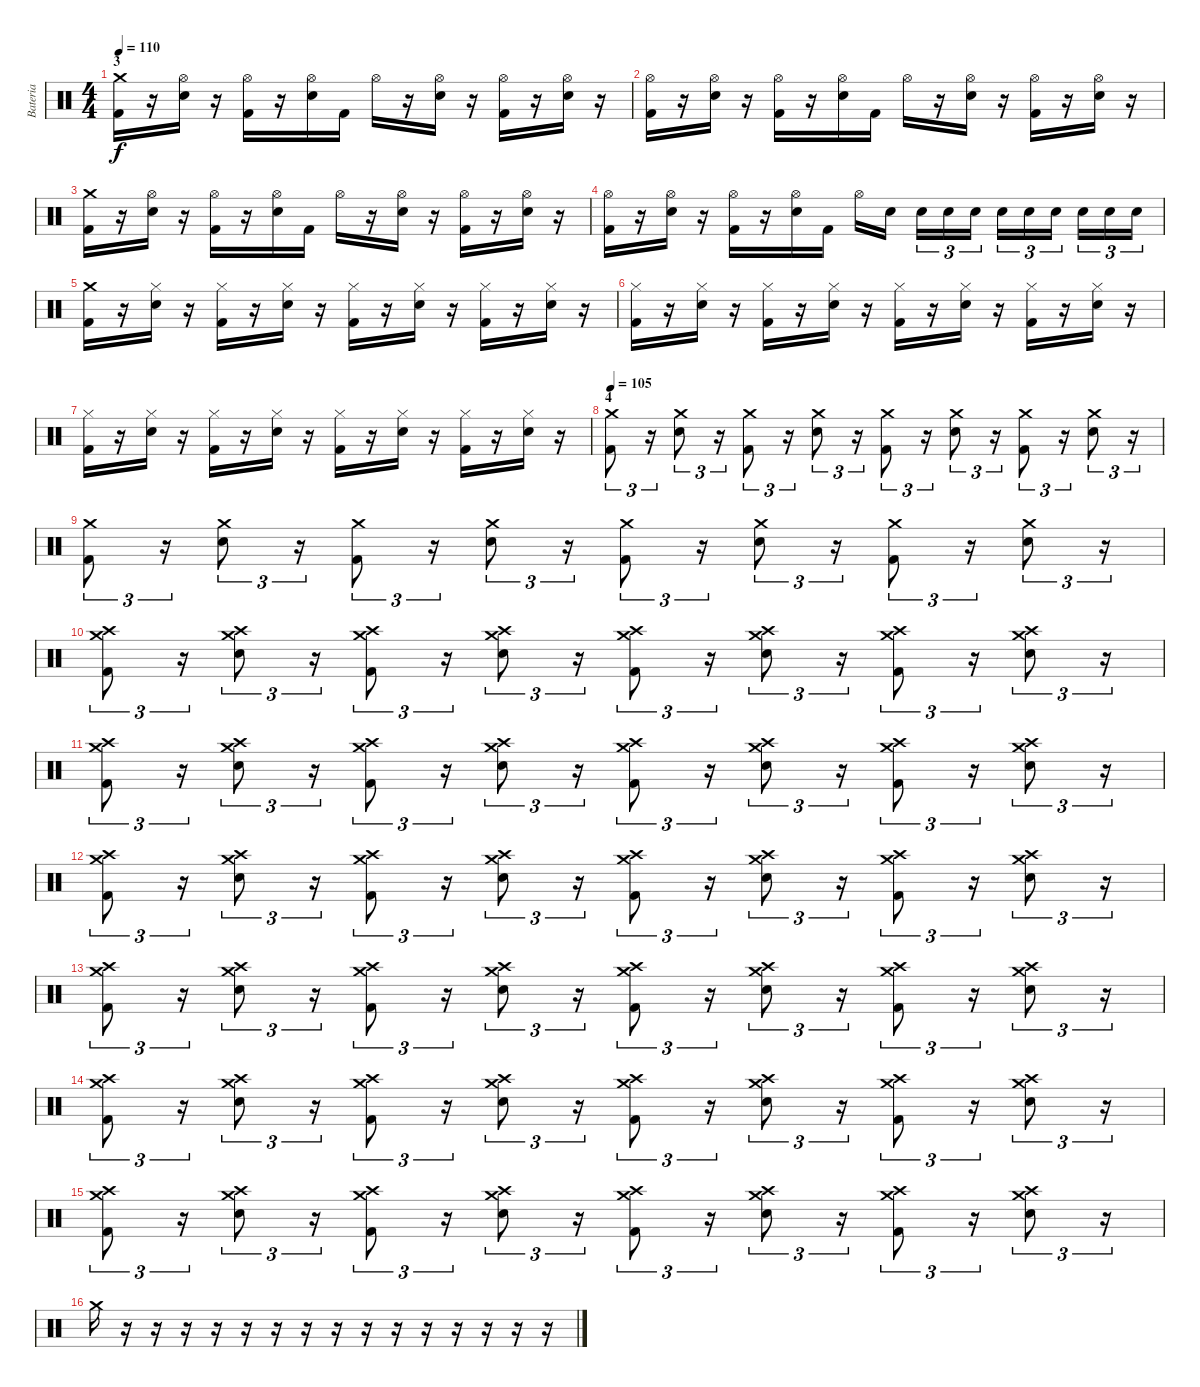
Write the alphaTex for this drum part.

\track ("Bateria" "Bateria") {instrument percussion}
\staff {score}
\articulation defaults
\ts (4 4)
\section ("" "3")
\tempo 110
\clef neutral
\ks c
("Crash medium (hit)" "Kick (hit) 2").16{dy f} r.16 ("Hi-Hat (open)" "Electric Snare (hit)").16 r.16 ("Hi-Hat (open)" "Kick (hit) 2").16 r.16 ("Hi-Hat (open)" "Electric Snare (hit)").16 "Kick (hit) 2".16 "Hi-Hat (open)".16 r.16 ("Hi-Hat (open)" "Electric Snare (hit)").16 r.16 ("Hi-Hat (open)" "Kick (hit) 2").16 r.16 ("Hi-Hat (open)" "Electric Snare (hit)").16 r.16 |
("Hi-Hat (open)" "Kick (hit) 2").16 r.16 ("Hi-Hat (open)" "Electric Snare (hit)").16 r.16 ("Hi-Hat (open)" "Kick (hit) 2").16 r.16 ("Hi-Hat (open)" "Electric Snare (hit)").16 "Kick (hit) 2".16 "Hi-Hat (open)".16 r.16 ("Hi-Hat (open)" "Electric Snare (hit)").16 r.16 ("Hi-Hat (open)" "Kick (hit) 2").16 r.16 ("Hi-Hat (open)" "Electric Snare (hit)").16 r.16 |
("Crash medium (hit)" "Kick (hit) 2").16 r.16 ("Hi-Hat (open)" "Electric Snare (hit)").16 r.16 ("Hi-Hat (open)" "Kick (hit) 2").16 r.16 ("Hi-Hat (open)" "Electric Snare (hit)").16 "Kick (hit) 2".16 "Hi-Hat (open)".16 r.16 ("Hi-Hat (open)" "Electric Snare (hit)").16 r.16 ("Hi-Hat (open)" "Kick (hit) 2").16 r.16 ("Hi-Hat (open)" "Electric Snare (hit)").16 r.16 |
("Hi-Hat (open)" "Kick (hit) 2").16 r.16 ("Hi-Hat (open)" "Electric Snare (hit)").16 r.16 ("Hi-Hat (open)" "Kick (hit) 2").16 r.16 ("Hi-Hat (open)" "Electric Snare (hit)").16 "Kick (hit) 2".16 "Hi-Hat (open)".16 "Electric Snare (hit)".16 "Electric Snare (hit)".16{tu (3 2)} "Electric Snare (hit)".16{tu (3 2)} "Electric Snare (hit)".16{tu (3 2)} "Electric Snare (hit)".16{tu (3 2)} "Electric Snare (hit)".16{tu (3 2)} "Electric Snare (hit)".16{tu (3 2)} "Electric Snare (hit)".16{tu (3 2)} "Electric Snare (hit)".16{tu (3 2)} "Electric Snare (hit)".16{tu (3 2)} |
("Crash medium (hit)" "Kick (hit) 2").16 r.16 ("Hi-Hat (closed)" "Electric Snare (hit)").16 r.16 ("Hi-Hat (closed)" "Kick (hit) 2").16 r.16 ("Hi-Hat (closed)" "Electric Snare (hit)").16 r.16 ("Hi-Hat (closed)" "Kick (hit) 2").16 r.16 ("Hi-Hat (closed)" "Electric Snare (hit)").16 r.16 ("Hi-Hat (closed)" "Kick (hit) 2").16 r.16 ("Hi-Hat (closed)" "Electric Snare (hit)").16 r.16 |
("Hi-Hat (closed)" "Kick (hit) 2").16 r.16 ("Hi-Hat (closed)" "Electric Snare (hit)").16 r.16 ("Hi-Hat (closed)" "Kick (hit) 2").16 r.16 ("Hi-Hat (closed)" "Electric Snare (hit)").16 r.16 ("Hi-Hat (closed)" "Kick (hit) 2").16 r.16 ("Hi-Hat (closed)" "Electric Snare (hit)").16 r.16 ("Hi-Hat (closed)" "Kick (hit) 2").16 r.16 ("Hi-Hat (closed)" "Electric Snare (hit)").16 r.16 |
("Hi-Hat (closed)" "Kick (hit) 2").16 r.16 ("Hi-Hat (closed)" "Electric Snare (hit)").16 r.16 ("Hi-Hat (closed)" "Kick (hit) 2").16 r.16 ("Hi-Hat (closed)" "Electric Snare (hit)").16 r.16 ("Hi-Hat (closed)" "Kick (hit) 2").16 r.16 ("Hi-Hat (closed)" "Electric Snare (hit)").16 r.16 ("Hi-Hat (closed)" "Kick (hit) 2").16 r.16 ("Hi-Hat (closed)" "Electric Snare (hit)").16 r.16 |
\section ("" "4")
\tempo 105
("Crash medium (hit)" "Kick (hit) 2").8{tu (3 2)} r.16{tu (3 2)} ("Crash medium (hit)" "Electric Snare (hit)").8{tu (3 2)} r.16{tu (3 2)} ("Crash medium (hit)" "Kick (hit) 2").8{tu (3 2)} r.16{tu (3 2)} ("Crash medium (hit)" "Electric Snare (hit)").8{tu (3 2)} r.16{tu (3 2)} ("Crash medium (hit)" "Kick (hit) 2").8{tu (3 2)} r.16{tu (3 2)} ("Crash medium (hit)" "Electric Snare (hit)").8{tu (3 2)} r.16{tu (3 2)} ("Crash medium (hit)" "Kick (hit) 2").8{tu (3 2)} r.16{tu (3 2)} ("Crash medium (hit)" "Electric Snare (hit)").8{tu (3 2)} r.16{tu (3 2)} |
("Crash medium (hit)" "Kick (hit) 2").8{tu (3 2)} r.16{tu (3 2)} ("Crash medium (hit)" "Electric Snare (hit)").8{tu (3 2)} r.16{tu (3 2)} ("Crash medium (hit)" "Kick (hit) 2").8{tu (3 2)} r.16{tu (3 2)} ("Crash medium (hit)" "Electric Snare (hit)").8{tu (3 2)} r.16{tu (3 2)} ("Crash medium (hit)" "Kick (hit) 2").8{tu (3 2)} r.16{tu (3 2)} ("Crash medium (hit)" "Electric Snare (hit)").8{tu (3 2)} r.16{tu (3 2)} ("Crash medium (hit)" "Kick (hit) 2").8{tu (3 2)} r.16{tu (3 2)} ("Crash medium (hit)" "Electric Snare (hit)").8{tu (3 2)} r.16{tu (3 2)} |
("Crash medium (hit)" "Crash high (hit)" "Kick (hit) 2").8{tu (3 2)} r.16{tu (3 2)} ("Crash medium (hit)" "Crash high (hit)" "Electric Snare (hit)").8{tu (3 2)} r.16{tu (3 2)} ("Crash medium (hit)" "Crash high (hit)" "Kick (hit) 2").8{tu (3 2)} r.16{tu (3 2)} ("Crash medium (hit)" "Crash high (hit)" "Electric Snare (hit)").8{tu (3 2)} r.16{tu (3 2)} ("Crash medium (hit)" "Crash high (hit)" "Kick (hit) 2").8{tu (3 2)} r.16{tu (3 2)} ("Crash medium (hit)" "Crash high (hit)" "Electric Snare (hit)").8{tu (3 2)} r.16{tu (3 2)} ("Crash medium (hit)" "Crash high (hit)" "Kick (hit) 2").8{tu (3 2)} r.16{tu (3 2)} ("Crash medium (hit)" "Crash high (hit)" "Electric Snare (hit)").8{tu (3 2)} r.16{tu (3 2)} |
("Crash medium (hit)" "Crash high (hit)" "Kick (hit) 2").8{tu (3 2)} r.16{tu (3 2)} ("Crash medium (hit)" "Crash high (hit)" "Electric Snare (hit)").8{tu (3 2)} r.16{tu (3 2)} ("Crash medium (hit)" "Crash high (hit)" "Kick (hit) 2").8{tu (3 2)} r.16{tu (3 2)} ("Crash medium (hit)" "Crash high (hit)" "Electric Snare (hit)").8{tu (3 2)} r.16{tu (3 2)} ("Crash medium (hit)" "Crash high (hit)" "Kick (hit) 2").8{tu (3 2)} r.16{tu (3 2)} ("Crash medium (hit)" "Crash high (hit)" "Electric Snare (hit)").8{tu (3 2)} r.16{tu (3 2)} ("Crash medium (hit)" "Crash high (hit)" "Kick (hit) 2").8{tu (3 2)} r.16{tu (3 2)} ("Crash medium (hit)" "Crash high (hit)" "Electric Snare (hit)").8{tu (3 2)} r.16{tu (3 2)} |
("Crash medium (hit)" "Crash high (hit)" "Kick (hit) 2").8{tu (3 2)} r.16{tu (3 2)} ("Crash medium (hit)" "Crash high (hit)" "Electric Snare (hit)").8{tu (3 2)} r.16{tu (3 2)} ("Crash medium (hit)" "Crash high (hit)" "Kick (hit) 2").8{tu (3 2)} r.16{tu (3 2)} ("Crash medium (hit)" "Crash high (hit)" "Electric Snare (hit)").8{tu (3 2)} r.16{tu (3 2)} ("Crash medium (hit)" "Crash high (hit)" "Kick (hit) 2").8{tu (3 2)} r.16{tu (3 2)} ("Crash medium (hit)" "Crash high (hit)" "Electric Snare (hit)").8{tu (3 2)} r.16{tu (3 2)} ("Crash medium (hit)" "Crash high (hit)" "Kick (hit) 2").8{tu (3 2)} r.16{tu (3 2)} ("Crash medium (hit)" "Crash high (hit)" "Electric Snare (hit)").8{tu (3 2)} r.16{tu (3 2)} |
("Crash medium (hit)" "Crash high (hit)" "Kick (hit) 2").8{tu (3 2)} r.16{tu (3 2)} ("Crash medium (hit)" "Crash high (hit)" "Electric Snare (hit)").8{tu (3 2)} r.16{tu (3 2)} ("Crash medium (hit)" "Crash high (hit)" "Kick (hit) 2").8{tu (3 2)} r.16{tu (3 2)} ("Crash medium (hit)" "Crash high (hit)" "Electric Snare (hit)").8{tu (3 2)} r.16{tu (3 2)} ("Crash medium (hit)" "Crash high (hit)" "Kick (hit) 2").8{tu (3 2)} r.16{tu (3 2)} ("Crash medium (hit)" "Crash high (hit)" "Electric Snare (hit)").8{tu (3 2)} r.16{tu (3 2)} ("Crash medium (hit)" "Crash high (hit)" "Kick (hit) 2").8{tu (3 2)} r.16{tu (3 2)} ("Crash medium (hit)" "Crash high (hit)" "Electric Snare (hit)").8{tu (3 2)} r.16{tu (3 2)} |
("Crash medium (hit)" "Crash high (hit)" "Kick (hit) 2").8{tu (3 2)} r.16{tu (3 2)} ("Crash medium (hit)" "Crash high (hit)" "Electric Snare (hit)").8{tu (3 2)} r.16{tu (3 2)} ("Crash medium (hit)" "Crash high (hit)" "Kick (hit) 2").8{tu (3 2)} r.16{tu (3 2)} ("Crash medium (hit)" "Crash high (hit)" "Electric Snare (hit)").8{tu (3 2)} r.16{tu (3 2)} ("Crash medium (hit)" "Crash high (hit)" "Kick (hit) 2").8{tu (3 2)} r.16{tu (3 2)} ("Crash medium (hit)" "Crash high (hit)" "Electric Snare (hit)").8{tu (3 2)} r.16{tu (3 2)} ("Crash medium (hit)" "Crash high (hit)" "Kick (hit) 2").8{tu (3 2)} r.16{tu (3 2)} ("Crash medium (hit)" "Crash high (hit)" "Electric Snare (hit)").8{tu (3 2)} r.16{tu (3 2)} |
("Crash medium (hit)" "Crash high (hit)" "Kick (hit) 2").8{tu (3 2)} r.16{tu (3 2)} ("Crash medium (hit)" "Crash high (hit)" "Electric Snare (hit)").8{tu (3 2)} r.16{tu (3 2)} ("Crash medium (hit)" "Crash high (hit)" "Kick (hit) 2").8{tu (3 2)} r.16{tu (3 2)} ("Crash medium (hit)" "Crash high (hit)" "Electric Snare (hit)").8{tu (3 2)} r.16{tu (3 2)} ("Crash medium (hit)" "Crash high (hit)" "Kick (hit) 2").8{tu (3 2)} r.16{tu (3 2)} ("Crash medium (hit)" "Crash high (hit)" "Electric Snare (hit)").8{tu (3 2)} r.16{tu (3 2)} ("Crash medium (hit)" "Crash high (hit)" "Kick (hit) 2").8{tu (3 2)} r.16{tu (3 2)} ("Crash medium (hit)" "Crash high (hit)" "Electric Snare (hit)").8{tu (3 2)} r.16{tu (3 2)} |
"Crash medium (hit)".16 r.16 r.16 r.16 r.16 r.16 r.16 r.16 r.16 r.16 r.16 r.16 r.16 r.16 r.16 r.16
